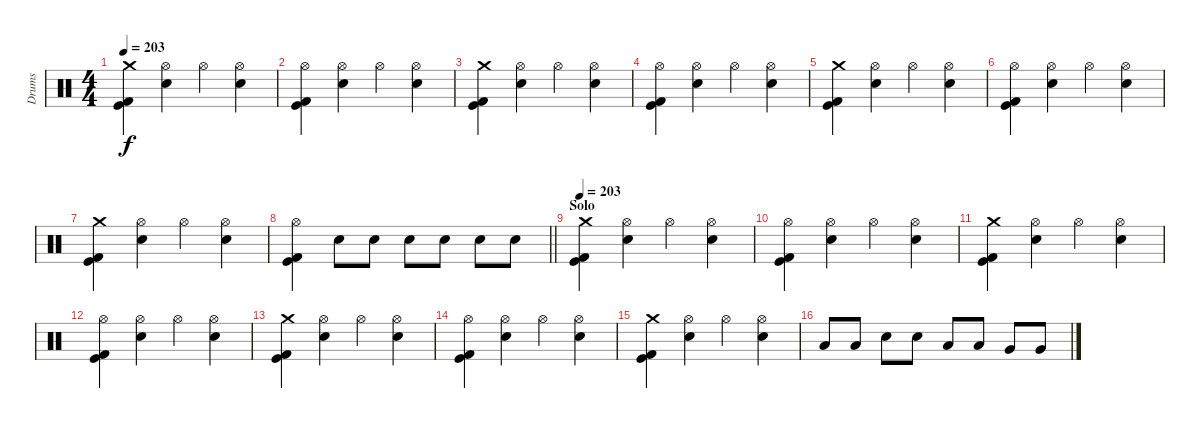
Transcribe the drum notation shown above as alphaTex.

\track ("Drums" "Drums") {instrument percussion}
\staff {score}
\articulation defaults
\ts (4 4)
\tempo 203
\clef neutral
\ks c
("Crash medium (hit)" "Kick (hit)" "Kick (hit) 2").4{dy f} ("Hi-Hat (open)" "Electric Snare (hit)").4 "Hi-Hat (open)".4 ("Hi-Hat (open)" "Electric Snare (hit)").4 |
("Hi-Hat (open)" "Kick (hit)" "Kick (hit) 2").4 ("Hi-Hat (open)" "Electric Snare (hit)").4 "Hi-Hat (open)".4 ("Hi-Hat (open)" "Electric Snare (hit)").4 |
("Crash medium (hit)" "Kick (hit)" "Kick (hit) 2").4 ("Hi-Hat (open)" "Electric Snare (hit)").4 "Hi-Hat (open)".4 ("Hi-Hat (open)" "Electric Snare (hit)").4 |
("Hi-Hat (open)" "Kick (hit)" "Kick (hit) 2").4 ("Hi-Hat (open)" "Electric Snare (hit)").4 "Hi-Hat (open)".4 ("Hi-Hat (open)" "Electric Snare (hit)").4 |
("Crash medium (hit)" "Kick (hit)" "Kick (hit) 2").4 ("Hi-Hat (open)" "Electric Snare (hit)").4 "Hi-Hat (open)".4 ("Hi-Hat (open)" "Electric Snare (hit)").4 |
("Hi-Hat (open)" "Kick (hit)" "Kick (hit) 2").4 ("Hi-Hat (open)" "Electric Snare (hit)").4 "Hi-Hat (open)".4 ("Hi-Hat (open)" "Electric Snare (hit)").4 |
("Crash medium (hit)" "Kick (hit)" "Kick (hit) 2").4 ("Hi-Hat (open)" "Electric Snare (hit)").4 "Hi-Hat (open)".4 ("Hi-Hat (open)" "Electric Snare (hit)").4 |
\barLineRight lightlight
("Hi-Hat (open)" "Kick (hit)" "Kick (hit) 2").4 "Electric Snare (hit)".8 "Electric Snare (hit)".8 "Electric Snare (hit)".8 "Electric Snare (hit)".8 "Electric Snare (hit)".8 "Electric Snare (hit)".8 |
\section ("" "Solo")
\tempo 203
("Crash medium (hit)" "Kick (hit)" "Kick (hit) 2").4 ("Hi-Hat (open)" "Electric Snare (hit)").4 "Hi-Hat (open)".4 ("Hi-Hat (open)" "Electric Snare (hit)").4 |
("Hi-Hat (open)" "Kick (hit)" "Kick (hit) 2").4 ("Hi-Hat (open)" "Electric Snare (hit)").4 "Hi-Hat (open)".4 ("Hi-Hat (open)" "Electric Snare (hit)").4 |
("Crash medium (hit)" "Kick (hit)" "Kick (hit) 2").4 ("Hi-Hat (open)" "Electric Snare (hit)").4 "Hi-Hat (open)".4 ("Hi-Hat (open)" "Electric Snare (hit)").4 |
("Hi-Hat (open)" "Kick (hit)" "Kick (hit) 2").4 ("Hi-Hat (open)" "Electric Snare (hit)").4 "Hi-Hat (open)".4 ("Hi-Hat (open)" "Electric Snare (hit)").4 |
("Crash medium (hit)" "Kick (hit)" "Kick (hit) 2").4 ("Hi-Hat (open)" "Electric Snare (hit)").4 "Hi-Hat (open)".4 ("Hi-Hat (open)" "Electric Snare (hit)").4 |
("Hi-Hat (open)" "Kick (hit)" "Kick (hit) 2").4 ("Hi-Hat (open)" "Electric Snare (hit)").4 "Hi-Hat (open)".4 ("Hi-Hat (open)" "Electric Snare (hit)").4 |
("Crash medium (hit)" "Kick (hit)" "Kick (hit) 2").4 ("Hi-Hat (open)" "Electric Snare (hit)").4 "Hi-Hat (open)".4 ("Hi-Hat (open)" "Electric Snare (hit)").4 |
"Low Tom (hit)".8 "Low Tom (hit)".8 "Electric Snare (hit)".8 "Electric Snare (hit)".8 "Low Tom (hit)".8 "Low Tom (hit)".8 "Very Low Tom (hit)".8 "Very Low Tom (hit)".8
